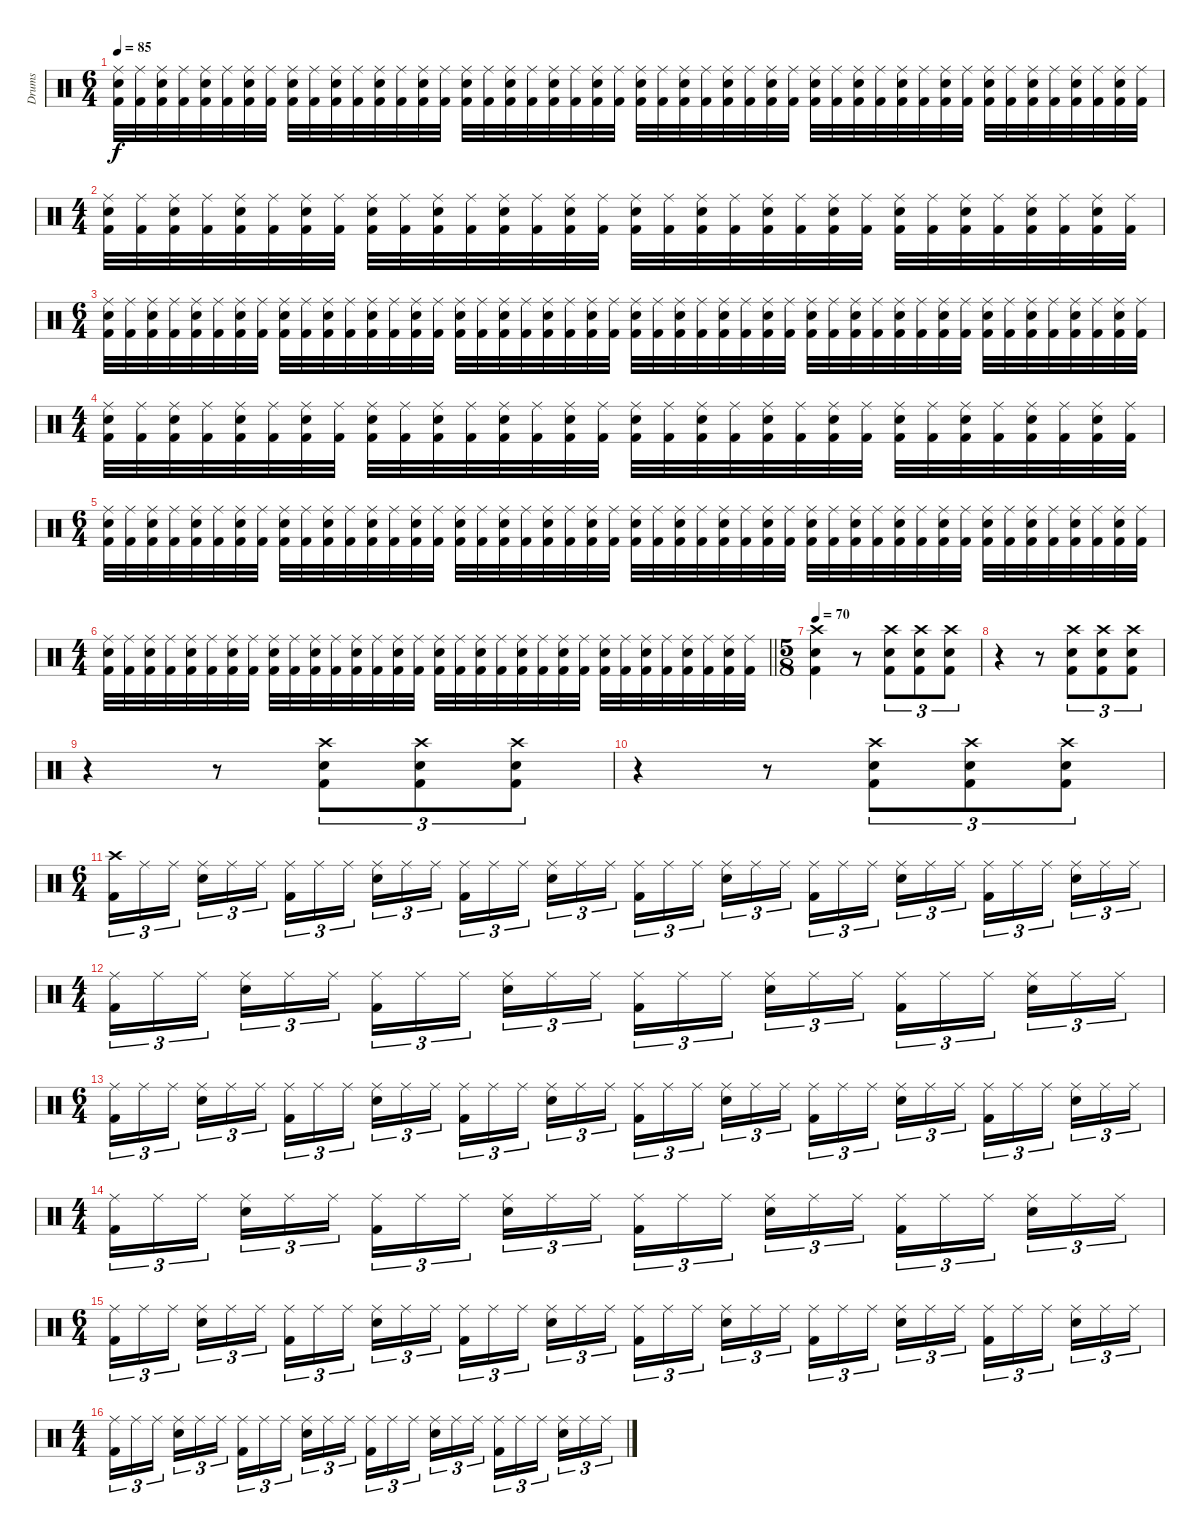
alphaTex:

\track ("Drums" "Drums") {instrument percussion}
\staff {score}
\articulation defaults
\ts (6 4)
\tempo 85
\clef neutral
\ks c
("Ride (middle)" "Electric Snare (hit)" "Kick (hit) 2").32{dy f} ("Ride (middle)" "Kick (hit) 2").32 ("Ride (middle)" "Electric Snare (hit)" "Kick (hit) 2").32 ("Ride (middle)" "Kick (hit) 2").32 ("Ride (middle)" "Electric Snare (hit)" "Kick (hit) 2").32 ("Ride (middle)" "Kick (hit) 2").32 ("Ride (middle)" "Electric Snare (hit)" "Kick (hit) 2").32 ("Ride (middle)" "Kick (hit) 2").32 ("Ride (middle)" "Electric Snare (hit)" "Kick (hit) 2").32 ("Ride (middle)" "Kick (hit) 2").32 ("Ride (middle)" "Electric Snare (hit)" "Kick (hit) 2").32 ("Ride (middle)" "Kick (hit) 2").32 ("Ride (middle)" "Electric Snare (hit)" "Kick (hit) 2").32 ("Ride (middle)" "Kick (hit) 2").32 ("Ride (middle)" "Electric Snare (hit)" "Kick (hit) 2").32 ("Ride (middle)" "Kick (hit) 2").32 ("Ride (middle)" "Electric Snare (hit)" "Kick (hit) 2").32 ("Ride (middle)" "Kick (hit) 2").32 ("Ride (middle)" "Electric Snare (hit)" "Kick (hit) 2").32 ("Ride (middle)" "Kick (hit) 2").32 ("Ride (middle)" "Electric Snare (hit)" "Kick (hit) 2").32 ("Ride (middle)" "Kick (hit) 2").32 ("Ride (middle)" "Electric Snare (hit)" "Kick (hit) 2").32 ("Ride (middle)" "Kick (hit) 2").32 ("Ride (middle)" "Electric Snare (hit)" "Kick (hit) 2").32 ("Ride (middle)" "Kick (hit) 2").32 ("Ride (middle)" "Electric Snare (hit)" "Kick (hit) 2").32 ("Ride (middle)" "Kick (hit) 2").32 ("Ride (middle)" "Electric Snare (hit)" "Kick (hit) 2").32 ("Ride (middle)" "Kick (hit) 2").32 ("Ride (middle)" "Electric Snare (hit)" "Kick (hit) 2").32 ("Ride (middle)" "Kick (hit) 2").32 ("Ride (middle)" "Electric Snare (hit)" "Kick (hit) 2").32 ("Ride (middle)" "Kick (hit) 2").32 ("Ride (middle)" "Electric Snare (hit)" "Kick (hit) 2").32 ("Ride (middle)" "Kick (hit) 2").32 ("Ride (middle)" "Electric Snare (hit)" "Kick (hit) 2").32 ("Ride (middle)" "Kick (hit) 2").32 ("Ride (middle)" "Electric Snare (hit)" "Kick (hit) 2").32 ("Ride (middle)" "Kick (hit) 2").32 ("Ride (middle)" "Electric Snare (hit)" "Kick (hit) 2").32 ("Ride (middle)" "Kick (hit) 2").32 ("Ride (middle)" "Electric Snare (hit)" "Kick (hit) 2").32 ("Ride (middle)" "Kick (hit) 2").32 ("Ride (middle)" "Electric Snare (hit)" "Kick (hit) 2").32 ("Ride (middle)" "Kick (hit) 2").32 ("Ride (middle)" "Electric Snare (hit)" "Kick (hit) 2").32 ("Ride (middle)" "Kick (hit) 2").32 |
\ts (4 4)
("Ride (middle)" "Electric Snare (hit)" "Kick (hit) 2").32 ("Ride (middle)" "Kick (hit) 2").32 ("Ride (middle)" "Electric Snare (hit)" "Kick (hit) 2").32 ("Ride (middle)" "Kick (hit) 2").32 ("Ride (middle)" "Electric Snare (hit)" "Kick (hit) 2").32 ("Ride (middle)" "Kick (hit) 2").32 ("Ride (middle)" "Electric Snare (hit)" "Kick (hit) 2").32 ("Ride (middle)" "Kick (hit) 2").32 ("Ride (middle)" "Electric Snare (hit)" "Kick (hit) 2").32 ("Ride (middle)" "Kick (hit) 2").32 ("Ride (middle)" "Electric Snare (hit)" "Kick (hit) 2").32 ("Ride (middle)" "Kick (hit) 2").32 ("Ride (middle)" "Electric Snare (hit)" "Kick (hit) 2").32 ("Ride (middle)" "Kick (hit) 2").32 ("Ride (middle)" "Electric Snare (hit)" "Kick (hit) 2").32 ("Ride (middle)" "Kick (hit) 2").32 ("Ride (middle)" "Electric Snare (hit)" "Kick (hit) 2").32 ("Ride (middle)" "Kick (hit) 2").32 ("Ride (middle)" "Electric Snare (hit)" "Kick (hit) 2").32 ("Ride (middle)" "Kick (hit) 2").32 ("Ride (middle)" "Electric Snare (hit)" "Kick (hit) 2").32 ("Ride (middle)" "Kick (hit) 2").32 ("Ride (middle)" "Electric Snare (hit)" "Kick (hit) 2").32 ("Ride (middle)" "Kick (hit) 2").32 ("Ride (middle)" "Electric Snare (hit)" "Kick (hit) 2").32 ("Ride (middle)" "Kick (hit) 2").32 ("Ride (middle)" "Electric Snare (hit)" "Kick (hit) 2").32 ("Ride (middle)" "Kick (hit) 2").32 ("Ride (middle)" "Electric Snare (hit)" "Kick (hit) 2").32 ("Ride (middle)" "Kick (hit) 2").32 ("Ride (middle)" "Electric Snare (hit)" "Kick (hit) 2").32 ("Ride (middle)" "Kick (hit) 2").32 |
\ts (6 4)
("Ride (middle)" "Electric Snare (hit)" "Kick (hit) 2").32 ("Ride (middle)" "Kick (hit) 2").32 ("Ride (middle)" "Electric Snare (hit)" "Kick (hit) 2").32 ("Ride (middle)" "Kick (hit) 2").32 ("Ride (middle)" "Electric Snare (hit)" "Kick (hit) 2").32 ("Ride (middle)" "Kick (hit) 2").32 ("Ride (middle)" "Electric Snare (hit)" "Kick (hit) 2").32 ("Ride (middle)" "Kick (hit) 2").32 ("Ride (middle)" "Electric Snare (hit)" "Kick (hit) 2").32 ("Ride (middle)" "Kick (hit) 2").32 ("Ride (middle)" "Electric Snare (hit)" "Kick (hit) 2").32 ("Ride (middle)" "Kick (hit) 2").32 ("Ride (middle)" "Electric Snare (hit)" "Kick (hit) 2").32 ("Ride (middle)" "Kick (hit) 2").32 ("Ride (middle)" "Electric Snare (hit)" "Kick (hit) 2").32 ("Ride (middle)" "Kick (hit) 2").32 ("Ride (middle)" "Electric Snare (hit)" "Kick (hit) 2").32 ("Ride (middle)" "Kick (hit) 2").32 ("Ride (middle)" "Electric Snare (hit)" "Kick (hit) 2").32 ("Ride (middle)" "Kick (hit) 2").32 ("Ride (middle)" "Electric Snare (hit)" "Kick (hit) 2").32 ("Ride (middle)" "Kick (hit) 2").32 ("Ride (middle)" "Electric Snare (hit)" "Kick (hit) 2").32 ("Ride (middle)" "Kick (hit) 2").32 ("Ride (middle)" "Electric Snare (hit)" "Kick (hit) 2").32 ("Ride (middle)" "Kick (hit) 2").32 ("Ride (middle)" "Electric Snare (hit)" "Kick (hit) 2").32 ("Ride (middle)" "Kick (hit) 2").32 ("Ride (middle)" "Electric Snare (hit)" "Kick (hit) 2").32 ("Ride (middle)" "Kick (hit) 2").32 ("Ride (middle)" "Electric Snare (hit)" "Kick (hit) 2").32 ("Ride (middle)" "Kick (hit) 2").32 ("Ride (middle)" "Electric Snare (hit)" "Kick (hit) 2").32 ("Ride (middle)" "Kick (hit) 2").32 ("Ride (middle)" "Electric Snare (hit)" "Kick (hit) 2").32 ("Ride (middle)" "Kick (hit) 2").32 ("Ride (middle)" "Electric Snare (hit)" "Kick (hit) 2").32 ("Ride (middle)" "Kick (hit) 2").32 ("Ride (middle)" "Electric Snare (hit)" "Kick (hit) 2").32 ("Ride (middle)" "Kick (hit) 2").32 ("Ride (middle)" "Electric Snare (hit)" "Kick (hit) 2").32 ("Ride (middle)" "Kick (hit) 2").32 ("Ride (middle)" "Electric Snare (hit)" "Kick (hit) 2").32 ("Ride (middle)" "Kick (hit) 2").32 ("Ride (middle)" "Electric Snare (hit)" "Kick (hit) 2").32 ("Ride (middle)" "Kick (hit) 2").32 ("Ride (middle)" "Electric Snare (hit)" "Kick (hit) 2").32 ("Ride (middle)" "Kick (hit) 2").32 |
\ts (4 4)
("Ride (middle)" "Electric Snare (hit)" "Kick (hit) 2").32 ("Ride (middle)" "Kick (hit) 2").32 ("Ride (middle)" "Electric Snare (hit)" "Kick (hit) 2").32 ("Ride (middle)" "Kick (hit) 2").32 ("Ride (middle)" "Electric Snare (hit)" "Kick (hit) 2").32 ("Ride (middle)" "Kick (hit) 2").32 ("Ride (middle)" "Electric Snare (hit)" "Kick (hit) 2").32 ("Ride (middle)" "Kick (hit) 2").32 ("Ride (middle)" "Electric Snare (hit)" "Kick (hit) 2").32 ("Ride (middle)" "Kick (hit) 2").32 ("Ride (middle)" "Electric Snare (hit)" "Kick (hit) 2").32 ("Ride (middle)" "Kick (hit) 2").32 ("Ride (middle)" "Electric Snare (hit)" "Kick (hit) 2").32 ("Ride (middle)" "Kick (hit) 2").32 ("Ride (middle)" "Electric Snare (hit)" "Kick (hit) 2").32 ("Ride (middle)" "Kick (hit) 2").32 ("Ride (middle)" "Electric Snare (hit)" "Kick (hit) 2").32 ("Ride (middle)" "Kick (hit) 2").32 ("Ride (middle)" "Electric Snare (hit)" "Kick (hit) 2").32 ("Ride (middle)" "Kick (hit) 2").32 ("Ride (middle)" "Electric Snare (hit)" "Kick (hit) 2").32 ("Ride (middle)" "Kick (hit) 2").32 ("Ride (middle)" "Electric Snare (hit)" "Kick (hit) 2").32 ("Ride (middle)" "Kick (hit) 2").32 ("Ride (middle)" "Electric Snare (hit)" "Kick (hit) 2").32 ("Ride (middle)" "Kick (hit) 2").32 ("Ride (middle)" "Electric Snare (hit)" "Kick (hit) 2").32 ("Ride (middle)" "Kick (hit) 2").32 ("Ride (middle)" "Electric Snare (hit)" "Kick (hit) 2").32 ("Ride (middle)" "Kick (hit) 2").32 ("Ride (middle)" "Electric Snare (hit)" "Kick (hit) 2").32 ("Ride (middle)" "Kick (hit) 2").32 |
\ts (6 4)
("Ride (middle)" "Electric Snare (hit)" "Kick (hit) 2").32 ("Ride (middle)" "Kick (hit) 2").32 ("Ride (middle)" "Electric Snare (hit)" "Kick (hit) 2").32 ("Ride (middle)" "Kick (hit) 2").32 ("Ride (middle)" "Electric Snare (hit)" "Kick (hit) 2").32 ("Ride (middle)" "Kick (hit) 2").32 ("Ride (middle)" "Electric Snare (hit)" "Kick (hit) 2").32 ("Ride (middle)" "Kick (hit) 2").32 ("Ride (middle)" "Electric Snare (hit)" "Kick (hit) 2").32 ("Ride (middle)" "Kick (hit) 2").32 ("Ride (middle)" "Electric Snare (hit)" "Kick (hit) 2").32 ("Ride (middle)" "Kick (hit) 2").32 ("Ride (middle)" "Electric Snare (hit)" "Kick (hit) 2").32 ("Ride (middle)" "Kick (hit) 2").32 ("Ride (middle)" "Electric Snare (hit)" "Kick (hit) 2").32 ("Ride (middle)" "Kick (hit) 2").32 ("Ride (middle)" "Electric Snare (hit)" "Kick (hit) 2").32 ("Ride (middle)" "Kick (hit) 2").32 ("Ride (middle)" "Electric Snare (hit)" "Kick (hit) 2").32 ("Ride (middle)" "Kick (hit) 2").32 ("Ride (middle)" "Electric Snare (hit)" "Kick (hit) 2").32 ("Ride (middle)" "Kick (hit) 2").32 ("Ride (middle)" "Electric Snare (hit)" "Kick (hit) 2").32 ("Ride (middle)" "Kick (hit) 2").32 ("Ride (middle)" "Electric Snare (hit)" "Kick (hit) 2").32 ("Ride (middle)" "Kick (hit) 2").32 ("Ride (middle)" "Electric Snare (hit)" "Kick (hit) 2").32 ("Ride (middle)" "Kick (hit) 2").32 ("Ride (middle)" "Electric Snare (hit)" "Kick (hit) 2").32 ("Ride (middle)" "Kick (hit) 2").32 ("Ride (middle)" "Electric Snare (hit)" "Kick (hit) 2").32 ("Ride (middle)" "Kick (hit) 2").32 ("Ride (middle)" "Electric Snare (hit)" "Kick (hit) 2").32 ("Ride (middle)" "Kick (hit) 2").32 ("Ride (middle)" "Electric Snare (hit)" "Kick (hit) 2").32 ("Ride (middle)" "Kick (hit) 2").32 ("Ride (middle)" "Electric Snare (hit)" "Kick (hit) 2").32 ("Ride (middle)" "Kick (hit) 2").32 ("Ride (middle)" "Electric Snare (hit)" "Kick (hit) 2").32 ("Ride (middle)" "Kick (hit) 2").32 ("Ride (middle)" "Electric Snare (hit)" "Kick (hit) 2").32 ("Ride (middle)" "Kick (hit) 2").32 ("Ride (middle)" "Electric Snare (hit)" "Kick (hit) 2").32 ("Ride (middle)" "Kick (hit) 2").32 ("Ride (middle)" "Electric Snare (hit)" "Kick (hit) 2").32 ("Ride (middle)" "Kick (hit) 2").32 ("Ride (middle)" "Electric Snare (hit)" "Kick (hit) 2").32 ("Ride (middle)" "Kick (hit) 2").32 |
\ts (4 4)
\barLineRight lightlight
("Ride (middle)" "Electric Snare (hit)" "Kick (hit) 2").32 ("Ride (middle)" "Kick (hit) 2").32 ("Ride (middle)" "Electric Snare (hit)" "Kick (hit) 2").32 ("Ride (middle)" "Kick (hit) 2").32 ("Ride (middle)" "Electric Snare (hit)" "Kick (hit) 2").32 ("Ride (middle)" "Kick (hit) 2").32 ("Ride (middle)" "Electric Snare (hit)" "Kick (hit) 2").32 ("Ride (middle)" "Kick (hit) 2").32 ("Ride (middle)" "Electric Snare (hit)" "Kick (hit) 2").32 ("Ride (middle)" "Kick (hit) 2").32 ("Ride (middle)" "Electric Snare (hit)" "Kick (hit) 2").32 ("Ride (middle)" "Kick (hit) 2").32 ("Ride (middle)" "Electric Snare (hit)" "Kick (hit) 2").32 ("Ride (middle)" "Kick (hit) 2").32 ("Ride (middle)" "Electric Snare (hit)" "Kick (hit) 2").32 ("Ride (middle)" "Kick (hit) 2").32 ("Ride (middle)" "Electric Snare (hit)" "Kick (hit) 2").32 ("Ride (middle)" "Kick (hit) 2").32 ("Ride (middle)" "Electric Snare (hit)" "Kick (hit) 2").32 ("Ride (middle)" "Kick (hit) 2").32 ("Ride (middle)" "Electric Snare (hit)" "Kick (hit) 2").32 ("Ride (middle)" "Kick (hit) 2").32 ("Ride (middle)" "Electric Snare (hit)" "Kick (hit) 2").32 ("Ride (middle)" "Kick (hit) 2").32 ("Ride (middle)" "Electric Snare (hit)" "Kick (hit) 2").32 ("Ride (middle)" "Kick (hit) 2").32 ("Ride (middle)" "Electric Snare (hit)" "Kick (hit) 2").32 ("Ride (middle)" "Kick (hit) 2").32 ("Ride (middle)" "Electric Snare (hit)" "Kick (hit) 2").32 ("Ride (middle)" "Kick (hit) 2").32 ("Ride (middle)" "Electric Snare (hit)" "Kick (hit) 2").32 ("Ride (middle)" "Kick (hit) 2").32 |
\ts (5 8)
\tempo 70
("Crash high (hit)" "Electric Snare (hit)" "Kick (hit) 2").4 r.8 ("Crash high (hit)" "Electric Snare (hit)" "Kick (hit) 2").8{tu (3 2)} ("Crash high (hit)" "Electric Snare (hit)" "Kick (hit) 2").8{tu (3 2)} ("Crash high (hit)" "Electric Snare (hit)" "Kick (hit) 2").8{tu (3 2)} |
r.4 r.8 ("Crash high (hit)" "Electric Snare (hit)" "Kick (hit) 2").8{tu (3 2)} ("Crash high (hit)" "Electric Snare (hit)" "Kick (hit) 2").8{tu (3 2)} ("Crash high (hit)" "Electric Snare (hit)" "Kick (hit) 2").8{tu (3 2)} |
r.4 r.8 ("Crash high (hit)" "Electric Snare (hit)" "Kick (hit) 2").8{tu (3 2)} ("Crash high (hit)" "Electric Snare (hit)" "Kick (hit) 2").8{tu (3 2)} ("Crash high (hit)" "Electric Snare (hit)" "Kick (hit) 2").8{tu (3 2)} |
r.4 r.8 ("Crash high (hit)" "Electric Snare (hit)" "Kick (hit) 2").8{tu (3 2)} ("Crash high (hit)" "Electric Snare (hit)" "Kick (hit) 2").8{tu (3 2)} ("Crash high (hit)" "Electric Snare (hit)" "Kick (hit) 2").8{tu (3 2)} |
\ts (6 4)
("Crash high (hit)" "Kick (hit) 2").16{tu (3 2)} "Ride (middle)".16{tu (3 2)} "Ride (middle)".16{tu (3 2)} ("Ride (middle)" "Electric Snare (hit)").16{tu (3 2)} "Ride (middle)".16{tu (3 2)} "Ride (middle)".16{tu (3 2)} ("Ride (middle)" "Kick (hit) 2").16{tu (3 2)} "Ride (middle)".16{tu (3 2)} "Ride (middle)".16{tu (3 2)} ("Ride (middle)" "Electric Snare (hit)").16{tu (3 2)} "Ride (middle)".16{tu (3 2)} "Ride (middle)".16{tu (3 2)} ("Ride (middle)" "Kick (hit) 2").16{tu (3 2)} "Ride (middle)".16{tu (3 2)} "Ride (middle)".16{tu (3 2)} ("Ride (middle)" "Electric Snare (hit)").16{tu (3 2)} "Ride (middle)".16{tu (3 2)} "Ride (middle)".16{tu (3 2)} ("Ride (middle)" "Kick (hit) 2").16{tu (3 2)} "Ride (middle)".16{tu (3 2)} "Ride (middle)".16{tu (3 2)} ("Ride (middle)" "Electric Snare (hit)").16{tu (3 2)} "Ride (middle)".16{tu (3 2)} "Ride (middle)".16{tu (3 2)} ("Ride (middle)" "Kick (hit) 2").16{tu (3 2)} "Ride (middle)".16{tu (3 2)} "Ride (middle)".16{tu (3 2)} ("Ride (middle)" "Electric Snare (hit)").16{tu (3 2)} "Ride (middle)".16{tu (3 2)} "Ride (middle)".16{tu (3 2)} ("Ride (middle)" "Kick (hit) 2").16{tu (3 2)} "Ride (middle)".16{tu (3 2)} "Ride (middle)".16{tu (3 2)} ("Ride (middle)" "Electric Snare (hit)").16{tu (3 2)} "Ride (middle)".16{tu (3 2)} "Ride (middle)".16{tu (3 2)} |
\ts (4 4)
("Ride (middle)" "Kick (hit) 2").16{tu (3 2)} "Ride (middle)".16{tu (3 2)} "Ride (middle)".16{tu (3 2)} ("Ride (middle)" "Electric Snare (hit)").16{tu (3 2)} "Ride (middle)".16{tu (3 2)} "Ride (middle)".16{tu (3 2)} ("Ride (middle)" "Kick (hit) 2").16{tu (3 2)} "Ride (middle)".16{tu (3 2)} "Ride (middle)".16{tu (3 2)} ("Ride (middle)" "Electric Snare (hit)").16{tu (3 2)} "Ride (middle)".16{tu (3 2)} "Ride (middle)".16{tu (3 2)} ("Ride (middle)" "Kick (hit) 2").16{tu (3 2)} "Ride (middle)".16{tu (3 2)} "Ride (middle)".16{tu (3 2)} ("Ride (middle)" "Electric Snare (hit)").16{tu (3 2)} "Ride (middle)".16{tu (3 2)} "Ride (middle)".16{tu (3 2)} ("Ride (middle)" "Kick (hit) 2").16{tu (3 2)} "Ride (middle)".16{tu (3 2)} "Ride (middle)".16{tu (3 2)} ("Ride (middle)" "Electric Snare (hit)").16{tu (3 2)} "Ride (middle)".16{tu (3 2)} "Ride (middle)".16{tu (3 2)} |
\ts (6 4)
("Ride (middle)" "Kick (hit) 2").16{tu (3 2)} "Ride (middle)".16{tu (3 2)} "Ride (middle)".16{tu (3 2)} ("Ride (middle)" "Electric Snare (hit)").16{tu (3 2)} "Ride (middle)".16{tu (3 2)} "Ride (middle)".16{tu (3 2)} ("Ride (middle)" "Kick (hit) 2").16{tu (3 2)} "Ride (middle)".16{tu (3 2)} "Ride (middle)".16{tu (3 2)} ("Ride (middle)" "Electric Snare (hit)").16{tu (3 2)} "Ride (middle)".16{tu (3 2)} "Ride (middle)".16{tu (3 2)} ("Ride (middle)" "Kick (hit) 2").16{tu (3 2)} "Ride (middle)".16{tu (3 2)} "Ride (middle)".16{tu (3 2)} ("Ride (middle)" "Electric Snare (hit)").16{tu (3 2)} "Ride (middle)".16{tu (3 2)} "Ride (middle)".16{tu (3 2)} ("Ride (middle)" "Kick (hit) 2").16{tu (3 2)} "Ride (middle)".16{tu (3 2)} "Ride (middle)".16{tu (3 2)} ("Ride (middle)" "Electric Snare (hit)").16{tu (3 2)} "Ride (middle)".16{tu (3 2)} "Ride (middle)".16{tu (3 2)} ("Ride (middle)" "Kick (hit) 2").16{tu (3 2)} "Ride (middle)".16{tu (3 2)} "Ride (middle)".16{tu (3 2)} ("Ride (middle)" "Electric Snare (hit)").16{tu (3 2)} "Ride (middle)".16{tu (3 2)} "Ride (middle)".16{tu (3 2)} ("Ride (middle)" "Kick (hit) 2").16{tu (3 2)} "Ride (middle)".16{tu (3 2)} "Ride (middle)".16{tu (3 2)} ("Ride (middle)" "Electric Snare (hit)").16{tu (3 2)} "Ride (middle)".16{tu (3 2)} "Ride (middle)".16{tu (3 2)} |
\ts (4 4)
("Ride (middle)" "Kick (hit) 2").16{tu (3 2)} "Ride (middle)".16{tu (3 2)} "Ride (middle)".16{tu (3 2)} ("Ride (middle)" "Electric Snare (hit)").16{tu (3 2)} "Ride (middle)".16{tu (3 2)} "Ride (middle)".16{tu (3 2)} ("Ride (middle)" "Kick (hit) 2").16{tu (3 2)} "Ride (middle)".16{tu (3 2)} "Ride (middle)".16{tu (3 2)} ("Ride (middle)" "Electric Snare (hit)").16{tu (3 2)} "Ride (middle)".16{tu (3 2)} "Ride (middle)".16{tu (3 2)} ("Ride (middle)" "Kick (hit) 2").16{tu (3 2)} "Ride (middle)".16{tu (3 2)} "Ride (middle)".16{tu (3 2)} ("Ride (middle)" "Electric Snare (hit)").16{tu (3 2)} "Ride (middle)".16{tu (3 2)} "Ride (middle)".16{tu (3 2)} ("Ride (middle)" "Kick (hit) 2").16{tu (3 2)} "Ride (middle)".16{tu (3 2)} "Ride (middle)".16{tu (3 2)} ("Ride (middle)" "Electric Snare (hit)").16{tu (3 2)} "Ride (middle)".16{tu (3 2)} "Ride (middle)".16{tu (3 2)} |
\ts (6 4)
("Ride (middle)" "Kick (hit) 2").16{tu (3 2)} "Ride (middle)".16{tu (3 2)} "Ride (middle)".16{tu (3 2)} ("Ride (middle)" "Electric Snare (hit)").16{tu (3 2)} "Ride (middle)".16{tu (3 2)} "Ride (middle)".16{tu (3 2)} ("Ride (middle)" "Kick (hit) 2").16{tu (3 2)} "Ride (middle)".16{tu (3 2)} "Ride (middle)".16{tu (3 2)} ("Ride (middle)" "Electric Snare (hit)").16{tu (3 2)} "Ride (middle)".16{tu (3 2)} "Ride (middle)".16{tu (3 2)} ("Ride (middle)" "Kick (hit) 2").16{tu (3 2)} "Ride (middle)".16{tu (3 2)} "Ride (middle)".16{tu (3 2)} ("Ride (middle)" "Electric Snare (hit)").16{tu (3 2)} "Ride (middle)".16{tu (3 2)} "Ride (middle)".16{tu (3 2)} ("Ride (middle)" "Kick (hit) 2").16{tu (3 2)} "Ride (middle)".16{tu (3 2)} "Ride (middle)".16{tu (3 2)} ("Ride (middle)" "Electric Snare (hit)").16{tu (3 2)} "Ride (middle)".16{tu (3 2)} "Ride (middle)".16{tu (3 2)} ("Ride (middle)" "Kick (hit) 2").16{tu (3 2)} "Ride (middle)".16{tu (3 2)} "Ride (middle)".16{tu (3 2)} ("Ride (middle)" "Electric Snare (hit)").16{tu (3 2)} "Ride (middle)".16{tu (3 2)} "Ride (middle)".16{tu (3 2)} ("Ride (middle)" "Kick (hit) 2").16{tu (3 2)} "Ride (middle)".16{tu (3 2)} "Ride (middle)".16{tu (3 2)} ("Ride (middle)" "Electric Snare (hit)").16{tu (3 2)} "Ride (middle)".16{tu (3 2)} "Ride (middle)".16{tu (3 2)} |
\ts (4 4)
("Ride (middle)" "Kick (hit) 2").16{tu (3 2)} "Ride (middle)".16{tu (3 2)} "Ride (middle)".16{tu (3 2)} ("Ride (middle)" "Electric Snare (hit)").16{tu (3 2)} "Ride (middle)".16{tu (3 2)} "Ride (middle)".16{tu (3 2)} ("Ride (middle)" "Kick (hit) 2").16{tu (3 2)} "Ride (middle)".16{tu (3 2)} "Ride (middle)".16{tu (3 2)} ("Ride (middle)" "Electric Snare (hit)").16{tu (3 2)} "Ride (middle)".16{tu (3 2)} "Ride (middle)".16{tu (3 2)} ("Ride (middle)" "Kick (hit) 2").16{tu (3 2)} "Ride (middle)".16{tu (3 2)} "Ride (middle)".16{tu (3 2)} ("Ride (middle)" "Electric Snare (hit)").16{tu (3 2)} "Ride (middle)".16{tu (3 2)} "Ride (middle)".16{tu (3 2)} ("Ride (middle)" "Kick (hit) 2").16{tu (3 2)} "Ride (middle)".16{tu (3 2)} "Ride (middle)".16{tu (3 2)} ("Ride (middle)" "Electric Snare (hit)").16{tu (3 2)} "Ride (middle)".16{tu (3 2)} "Ride (middle)".16{tu (3 2)}
